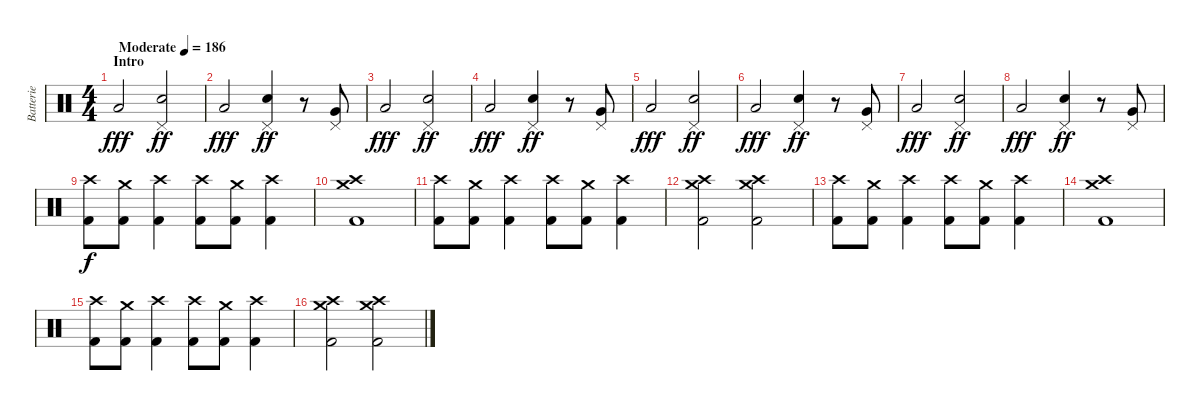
\track ("Batterie" "Batterie") {instrument percussion}
\staff {score}
\articulation defaults
\ts (4 4)
\section ("" "Intro")
\tempo (186 "Moderate")
\clef neutral
\ks c "Low Floor Tom (hit)".2{dy fff}
("Hand Clap (hit)" "Pedal Hi-Hat (hit)").2{dy ff} |
"Low Floor Tom (hit)".2{dy fff} ("Hand Clap (hit)" "Pedal Hi-Hat (hit)").4{dy ff} r.8 ("Very Low Tom (hit)" "Pedal Hi-Hat (hit)").8 |
"Low Floor Tom (hit)".2{dy fff} ("Hand Clap (hit)" "Pedal Hi-Hat (hit)").2{dy ff} |
"Low Floor Tom (hit)".2{dy fff} ("Hand Clap (hit)" "Pedal Hi-Hat (hit)").4{dy ff} r.8 ("Very Low Tom (hit)" "Pedal Hi-Hat (hit)").8 |
"Low Floor Tom (hit)".2{dy fff} ("Hand Clap (hit)" "Pedal Hi-Hat (hit)").2{dy ff} |
"Low Floor Tom (hit)".2{dy fff} ("Hand Clap (hit)" "Pedal Hi-Hat (hit)").4{dy ff} r.8 ("Very Low Tom (hit)" "Pedal Hi-Hat (hit)").8 |
"Low Floor Tom (hit)".2{dy fff} ("Hand Clap (hit)" "Pedal Hi-Hat (hit)").2{dy ff} |
"Low Floor Tom (hit)".2{dy fff} ("Hand Clap (hit)" "Pedal Hi-Hat (hit)").4{dy ff} r.8 ("Very Low Tom (hit)" "Pedal Hi-Hat (hit)").8 |
("Kick (hit) 2" "Crash high (hit)").8{dy f} ("Kick (hit) 2" "Crash medium (hit)").8 ("Kick (hit) 2" "Crash high (hit)").4 ("Kick (hit) 2" "Crash high (hit)").8 ("Kick (hit) 2" "Crash medium (hit)").8 ("Kick (hit) 2" "Crash high (hit)").4 |
("Kick (hit) 2" "Crash medium (hit)" "Crash high (hit)").1 |
("Kick (hit) 2" "Crash high (hit)").8 ("Kick (hit) 2" "Crash medium (hit)").8 ("Kick (hit) 2" "Crash high (hit)").4 ("Kick (hit) 2" "Crash high (hit)").8 ("Kick (hit) 2" "Crash medium (hit)").8 ("Kick (hit) 2" "Crash high (hit)").4 |
("Kick (hit) 2" "Crash medium (hit)" "Crash high (hit)").2 ("Kick (hit) 2" "Crash medium (hit)" "Crash high (hit)").2 |
("Kick (hit) 2" "Crash high (hit)").8 ("Kick (hit) 2" "Crash medium (hit)").8 ("Kick (hit) 2" "Crash high (hit)").4 ("Kick (hit) 2" "Crash high (hit)").8 ("Kick (hit) 2" "Crash medium (hit)").8 ("Kick (hit) 2" "Crash high (hit)").4 |
("Kick (hit) 2" "Crash medium (hit)" "Crash high (hit)").1 |
("Kick (hit) 2" "Crash high (hit)").8 ("Kick (hit) 2" "Crash medium (hit)").8 ("Kick (hit) 2" "Crash high (hit)").4 ("Kick (hit) 2" "Crash high (hit)").8 ("Kick (hit) 2" "Crash medium (hit)").8 ("Kick (hit) 2" "Crash high (hit)").4 |
("Kick (hit) 2" "Crash medium (hit)" "Crash high (hit)").2 ("Kick (hit) 2" "Crash medium (hit)" "Crash high (hit)").2
